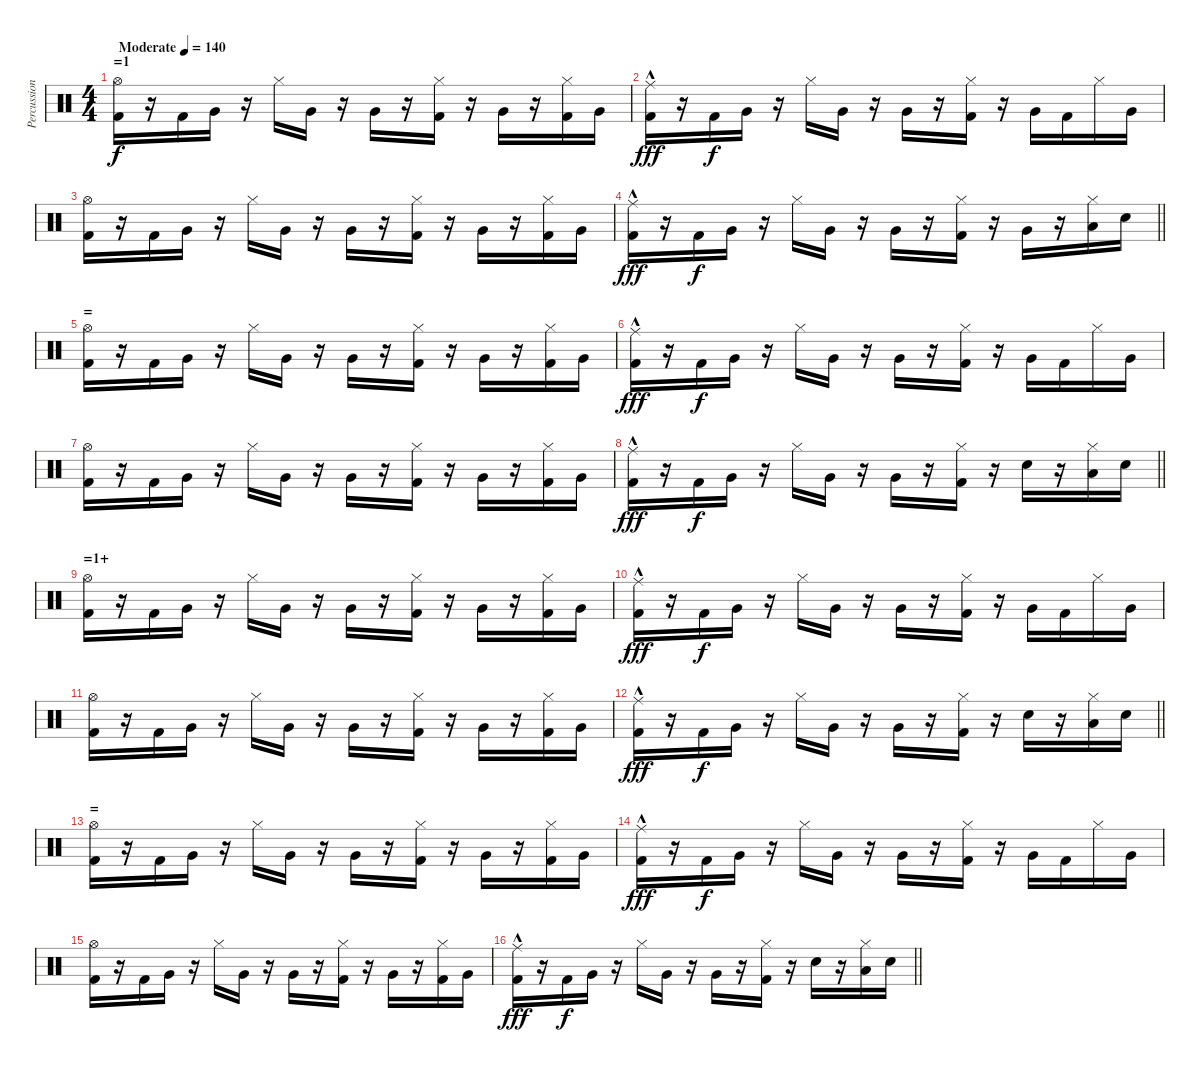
\track ("Percussion" "Percussion") {instrument percussion}
\staff {score}
\articulation defaults
\ts (4 4)
\section ("" "=1")
\tempo (140 "Moderate")
\clef neutral
\ks c
("Kick (hit) 2" "Hi-Hat (open)").16{dy f} r.16 "Kick (hit) 2".16 "Very Low Tom (hit)".16 r.16 "Hi-Hat (closed)".16 "Very Low Tom (hit)".16 r.16 "Very Low Tom (hit)".16 r.16 ("Kick (hit) 2" "Hi-Hat (closed)").16 r.16 "Very Low Tom (hit)".16 r.16 ("Kick (hit) 2" "Hi-Hat (closed)").16 "Very Low Tom (hit)".16 |
("Kick (hit) 2" "Ride (middle)"{hac}).16{dy fff} r.16 "Kick (hit) 2".16{dy f} "Very Low Tom (hit)".16 r.16 "Hi-Hat (closed)".16 "Very Low Tom (hit)".16 r.16 "Very Low Tom (hit)".16 r.16 ("Kick (hit) 2" "Hi-Hat (closed)").16 r.16 "Very Low Tom (hit)".16 "Kick (hit) 2".16 "Hi-Hat (closed)".16 "Very Low Tom (hit)".16 |
("Kick (hit) 2" "Hi-Hat (open)").16 r.16 "Kick (hit) 2".16 "Very Low Tom (hit)".16 r.16 "Hi-Hat (closed)".16 "Very Low Tom (hit)".16 r.16 "Very Low Tom (hit)".16 r.16 ("Kick (hit) 2" "Hi-Hat (closed)").16 r.16 "Very Low Tom (hit)".16 r.16 ("Kick (hit) 2" "Hi-Hat (closed)").16 "Very Low Tom (hit)".16 |
\barLineRight lightlight
("Kick (hit) 2" "Ride (middle)"{hac}).16{dy fff} r.16 "Kick (hit) 2".16{dy f} "Very Low Tom (hit)".16 r.16 "Hi-Hat (closed)".16 "Very Low Tom (hit)".16 r.16 "Very Low Tom (hit)".16 r.16 ("Kick (hit) 2" "Hi-Hat (closed)").16 r.16 "Very Low Tom (hit)".16 r.16 ("Low Floor Tom (hit)" "Hi-Hat (closed)").16 "Electric Snare (hit)".16 |
\section ("" "=")
("Kick (hit) 2" "Hi-Hat (open)").16 r.16 "Kick (hit) 2".16 "Very Low Tom (hit)".16 r.16 "Hi-Hat (closed)".16 "Very Low Tom (hit)".16 r.16 "Very Low Tom (hit)".16 r.16 ("Kick (hit) 2" "Hi-Hat (closed)").16 r.16 "Very Low Tom (hit)".16 r.16 ("Kick (hit) 2" "Hi-Hat (closed)").16 "Very Low Tom (hit)".16 |
("Kick (hit) 2" "Ride (middle)"{hac}).16{dy fff} r.16 "Kick (hit) 2".16{dy f} "Very Low Tom (hit)".16 r.16 "Hi-Hat (closed)".16 "Very Low Tom (hit)".16 r.16 "Very Low Tom (hit)".16 r.16 ("Kick (hit) 2" "Hi-Hat (closed)").16 r.16 "Very Low Tom (hit)".16 "Kick (hit) 2".16 "Hi-Hat (closed)".16 "Very Low Tom (hit)".16 |
("Kick (hit) 2" "Hi-Hat (open)").16 r.16 "Kick (hit) 2".16 "Very Low Tom (hit)".16 r.16 "Hi-Hat (closed)".16 "Very Low Tom (hit)".16 r.16 "Very Low Tom (hit)".16 r.16 ("Kick (hit) 2" "Hi-Hat (closed)").16 r.16 "Very Low Tom (hit)".16 r.16 ("Kick (hit) 2" "Hi-Hat (closed)").16 "Very Low Tom (hit)".16 |
\barLineRight lightlight
("Kick (hit) 2" "Ride (middle)"{hac}).16{dy fff} r.16 "Kick (hit) 2".16{dy f} "Very Low Tom (hit)".16 r.16 "Hi-Hat (closed)".16 "Very Low Tom (hit)".16 r.16 "Very Low Tom (hit)".16 r.16 ("Kick (hit) 2" "Hi-Hat (closed)").16 r.16 "Electric Snare (hit)".16 r.16 ("Low Floor Tom (hit)" "Hi-Hat (closed)").16 "Electric Snare (hit)".16 |
\section ("" "=1+")
("Kick (hit) 2" "Hi-Hat (open)").16 r.16 "Kick (hit) 2".16 "Very Low Tom (hit)".16 r.16 "Hi-Hat (closed)".16 "Very Low Tom (hit)".16 r.16 "Very Low Tom (hit)".16 r.16 ("Kick (hit) 2" "Hi-Hat (closed)").16 r.16 "Very Low Tom (hit)".16 r.16 ("Kick (hit) 2" "Hi-Hat (closed)").16 "Very Low Tom (hit)".16 |
("Kick (hit) 2" "Ride (middle)"{hac}).16{dy fff} r.16 "Kick (hit) 2".16{dy f} "Very Low Tom (hit)".16 r.16 "Hi-Hat (closed)".16 "Very Low Tom (hit)".16 r.16 "Very Low Tom (hit)".16 r.16 ("Kick (hit) 2" "Hi-Hat (closed)").16 r.16 "Very Low Tom (hit)".16 "Kick (hit) 2".16 "Hi-Hat (closed)".16 "Very Low Tom (hit)".16 |
("Kick (hit) 2" "Hi-Hat (open)").16 r.16 "Kick (hit) 2".16 "Very Low Tom (hit)".16 r.16 "Hi-Hat (closed)".16 "Very Low Tom (hit)".16 r.16 "Very Low Tom (hit)".16 r.16 ("Kick (hit) 2" "Hi-Hat (closed)").16 r.16 "Very Low Tom (hit)".16 r.16 ("Kick (hit) 2" "Hi-Hat (closed)").16 "Very Low Tom (hit)".16 |
\barLineRight lightlight
("Kick (hit) 2" "Ride (middle)"{hac}).16{dy fff} r.16 "Kick (hit) 2".16{dy f} "Very Low Tom (hit)".16 r.16 "Hi-Hat (closed)".16 "Very Low Tom (hit)".16 r.16 "Very Low Tom (hit)".16 r.16 ("Kick (hit) 2" "Hi-Hat (closed)").16 r.16 "Electric Snare (hit)".16 r.16 ("Low Floor Tom (hit)" "Hi-Hat (closed)").16 "Electric Snare (hit)".16 |
\section ("" "=")
("Kick (hit) 2" "Hi-Hat (open)").16 r.16 "Kick (hit) 2".16 "Very Low Tom (hit)".16 r.16 "Hi-Hat (closed)".16 "Very Low Tom (hit)".16 r.16 "Very Low Tom (hit)".16 r.16 ("Kick (hit) 2" "Hi-Hat (closed)").16 r.16 "Very Low Tom (hit)".16 r.16 ("Kick (hit) 2" "Hi-Hat (closed)").16 "Very Low Tom (hit)".16 |
("Kick (hit) 2" "Ride (middle)"{hac}).16{dy fff} r.16 "Kick (hit) 2".16{dy f} "Very Low Tom (hit)".16 r.16 "Hi-Hat (closed)".16 "Very Low Tom (hit)".16 r.16 "Very Low Tom (hit)".16 r.16 ("Kick (hit) 2" "Hi-Hat (closed)").16 r.16 "Very Low Tom (hit)".16 "Kick (hit) 2".16 "Hi-Hat (closed)".16 "Very Low Tom (hit)".16 |
("Kick (hit) 2" "Hi-Hat (open)").16 r.16 "Kick (hit) 2".16 "Very Low Tom (hit)".16 r.16 "Hi-Hat (closed)".16 "Very Low Tom (hit)".16 r.16 "Very Low Tom (hit)".16 r.16 ("Kick (hit) 2" "Hi-Hat (closed)").16 r.16 "Very Low Tom (hit)".16 r.16 ("Kick (hit) 2" "Hi-Hat (closed)").16 "Very Low Tom (hit)".16 |
\barLineRight lightlight
("Kick (hit) 2" "Ride (middle)"{hac}).16{dy fff} r.16 "Kick (hit) 2".16{dy f} "Very Low Tom (hit)".16 r.16 "Hi-Hat (closed)".16 "Very Low Tom (hit)".16 r.16 "Very Low Tom (hit)".16 r.16 ("Kick (hit) 2" "Hi-Hat (closed)").16 r.16 "Electric Snare (hit)".16 r.16 ("Low Floor Tom (hit)" "Hi-Hat (closed)").16 "Electric Snare (hit)".16
